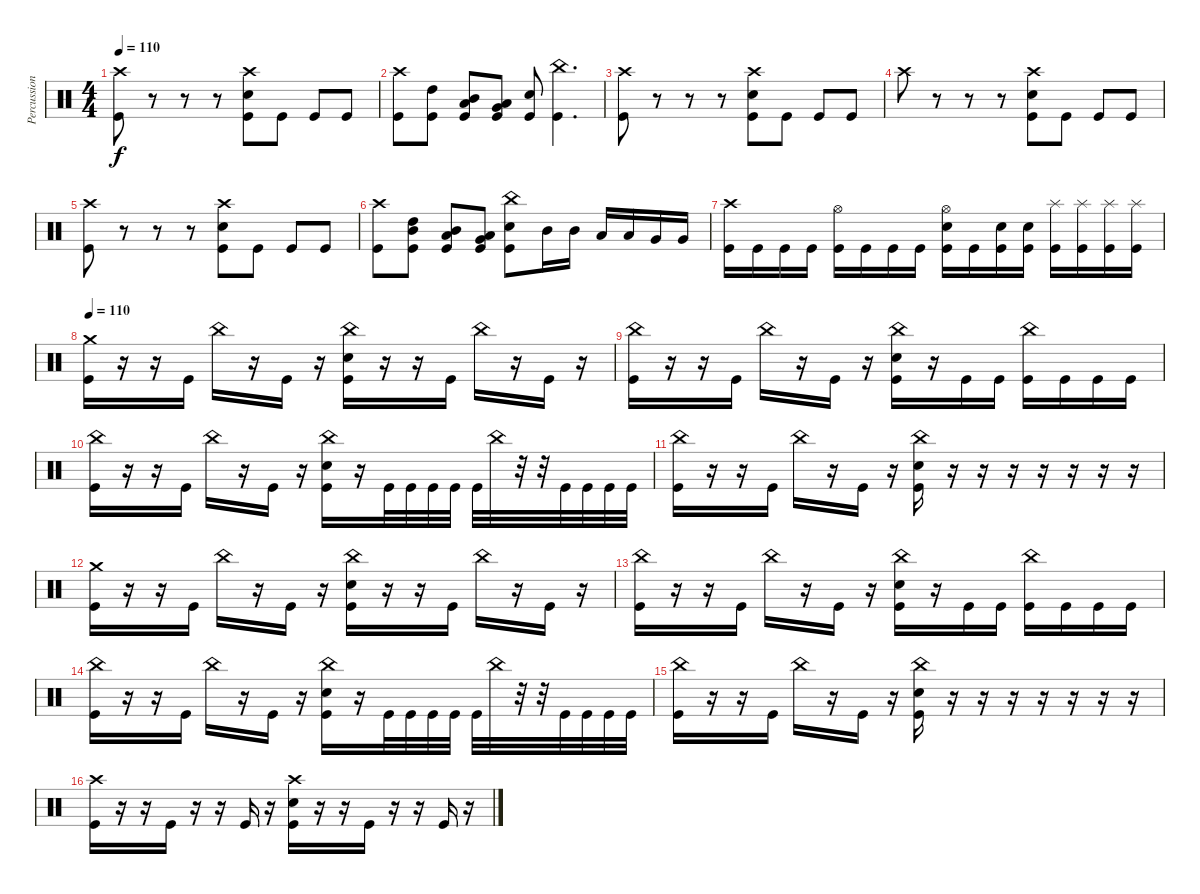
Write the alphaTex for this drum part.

\track ("Percussion" "Percussion") {instrument percussion}
\staff {score}
\articulation defaults
\ts (4 4)
\tempo 110
\clef neutral
\ks c
("Crash high (hit)" "Kick (hit)").8{dy f} r.8 r.8 r.8 ("Crash high (hit)" "Snare (hit) 2" "Kick (hit)").8 "Kick (hit)".8 "Kick (hit)".8 "Kick (hit)".8 |
("Crash high (hit)" "Kick (hit)").8 ("High Tom (hit)" "Kick (hit)").8 ("Mid Tom (hit)" "Low Tom (hit)" "Kick (hit)").8 ("Low Tom (hit)" "Very Low Tom (hit)" "Kick (hit)").8 ("Snare (hit) 2" "Kick (hit)").8 ("China (hit)" "Kick (hit)").4{d} |
("Crash high (hit)" "Kick (hit)").8 r.8 r.8 r.8 ("Crash high (hit)" "Snare (hit) 2" "Kick (hit)").8 "Kick (hit)".8 "Kick (hit)".8 "Kick (hit)".8 |
"Crash high (hit)".8 r.8 r.8 r.8 ("Crash high (hit)" "Snare (hit) 2" "Kick (hit)").8 "Kick (hit)".8 "Kick (hit)".8 "Kick (hit)".8 |
("Crash high (hit)" "Kick (hit)").8 r.8 r.8 r.8 ("Crash high (hit)" "Snare (hit) 2" "Kick (hit)").8 "Kick (hit)".8 "Kick (hit)".8 "Kick (hit)".8 |
("Crash high (hit)" "Kick (hit)").8 ("High Tom (hit)" "Mid Tom (hit)" "Kick (hit)").8 ("Mid Tom (hit)" "Low Tom (hit)" "Kick (hit)").8 ("Low Tom (hit)" "Very Low Tom (hit)" "Kick (hit)").8 ("China (hit)" "Snare (hit) 2" "Kick (hit)").8 "Mid Tom (hit)".16 "Mid Tom (hit)".16 "Low Tom (hit)".16 "Low Tom (hit)".16 "Very Low Tom (hit)".16 "Very Low Tom (hit)".16 |
("Crash high (hit)" "Kick (hit)").16 "Kick (hit)".16 "Kick (hit)".16 "Kick (hit)".16 ("Hi-Hat (open)" "Kick (hit)").16 "Kick (hit)".16 "Kick (hit)".16 "Kick (hit)".16 ("Hi-Hat (open)" "Snare (hit) 2" "Kick (hit)").16 "Kick (hit)".16 ("Snare (hit) 2" "Kick (hit)").16 ("Snare (hit) 2" "Kick (hit)").16 ("Splash (hit)" "Kick (hit)").16 ("Splash (hit)" "Kick (hit)").16 ("Splash (hit)" "Kick (hit)").16 ("Splash (hit)" "Kick (hit)").16 |
\tempo 110
("Crash medium (hit)" "Kick (hit)").16 r.16 r.16 "Kick (hit)".16 "China (hit)".16 r.16 "Kick (hit)".16 r.16 ("China (hit)" "Snare (hit) 2" "Kick (hit)").16 r.16 r.16 "Kick (hit)".16 "China (hit)".16 r.16 "Kick (hit)".16 r.16 |
("China (hit)" "Kick (hit)").16 r.16 r.16 "Kick (hit)".16 "China (hit)".16 r.16 "Kick (hit)".16 r.16 ("China (hit)" "Snare (hit) 2" "Kick (hit)").16 r.16 "Kick (hit)".16 "Kick (hit)".16 ("China (hit)" "Kick (hit)").16 "Kick (hit)".16 "Kick (hit)".16 "Kick (hit)".16 |
("China (hit)" "Kick (hit)").16 r.16 r.16 "Kick (hit)".16 "China (hit)".16 r.16 "Kick (hit)".16 r.16 ("China (hit)" "Snare (hit) 2" "Kick (hit)").16 r.16 "Kick (hit)".32 "Kick (hit)".32 "Kick (hit)".32 "Kick (hit)".32 "Kick (hit)".32 "China (hit)".32 r.32 r.32 "Kick (hit)".32 "Kick (hit)".32 "Kick (hit)".32 "Kick (hit)".32 |
("China (hit)" "Kick (hit)").16 r.16 r.16 "Kick (hit)".16 "China (hit)".16 r.16 "Kick (hit)".16 r.16 ("China (hit)" "Snare (hit) 2" "Kick (hit)").16 r.16 r.16 r.16 r.16 r.16 r.16 r.16 |
("Crash medium (hit)" "Kick (hit)").16 r.16 r.16 "Kick (hit)".16 "China (hit)".16 r.16 "Kick (hit)".16 r.16 ("China (hit)" "Snare (hit) 2" "Kick (hit)").16 r.16 r.16 "Kick (hit)".16 "China (hit)".16 r.16 "Kick (hit)".16 r.16 |
("China (hit)" "Kick (hit)").16 r.16 r.16 "Kick (hit)".16 "China (hit)".16 r.16 "Kick (hit)".16 r.16 ("China (hit)" "Snare (hit) 2" "Kick (hit)").16 r.16 "Kick (hit)".16 "Kick (hit)".16 ("China (hit)" "Kick (hit)").16 "Kick (hit)".16 "Kick (hit)".16 "Kick (hit)".16 |
("China (hit)" "Kick (hit)").16 r.16 r.16 "Kick (hit)".16 "China (hit)".16 r.16 "Kick (hit)".16 r.16 ("China (hit)" "Snare (hit) 2" "Kick (hit)").16 r.16 "Kick (hit)".32 "Kick (hit)".32 "Kick (hit)".32 "Kick (hit)".32 "Kick (hit)".32 "China (hit)".32 r.32 r.32 "Kick (hit)".32 "Kick (hit)".32 "Kick (hit)".32 "Kick (hit)".32 |
("China (hit)" "Kick (hit)").16 r.16 r.16 "Kick (hit)".16 "China (hit)".16 r.16 "Kick (hit)".16 r.16 ("China (hit)" "Snare (hit) 2" "Kick (hit)").16 r.16 r.16 r.16 r.16 r.16 r.16 r.16 |
("Crash high (hit)" "Kick (hit)").16 r.16 r.16 "Kick (hit)".16 r.16 r.16 "Kick (hit)".16 r.16 ("Crash high (hit)" "Snare (hit) 2" "Kick (hit)").16 r.16 r.16 "Kick (hit)".16 r.16 r.16 "Kick (hit)".16 r.16
